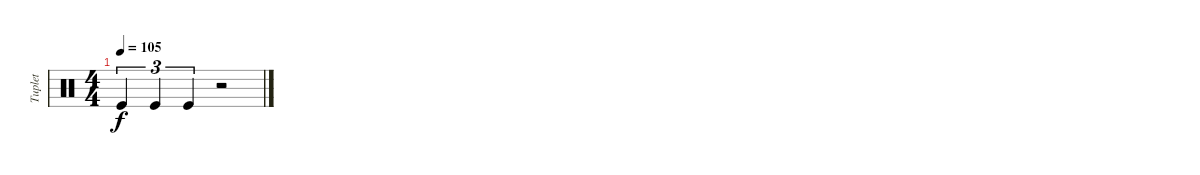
\track ("Tuplet" "Tuplet") {instrument percussion}
\staff {score}
\articulation defaults
\ts (4 4)
\tempo 105
\clef neutral
\ks c "Kick (hit)".4{tu (3 2) dy f} "Kick (hit)".4{tu (3 2)} "Kick (hit)".4{tu (3 2)}
r.2
